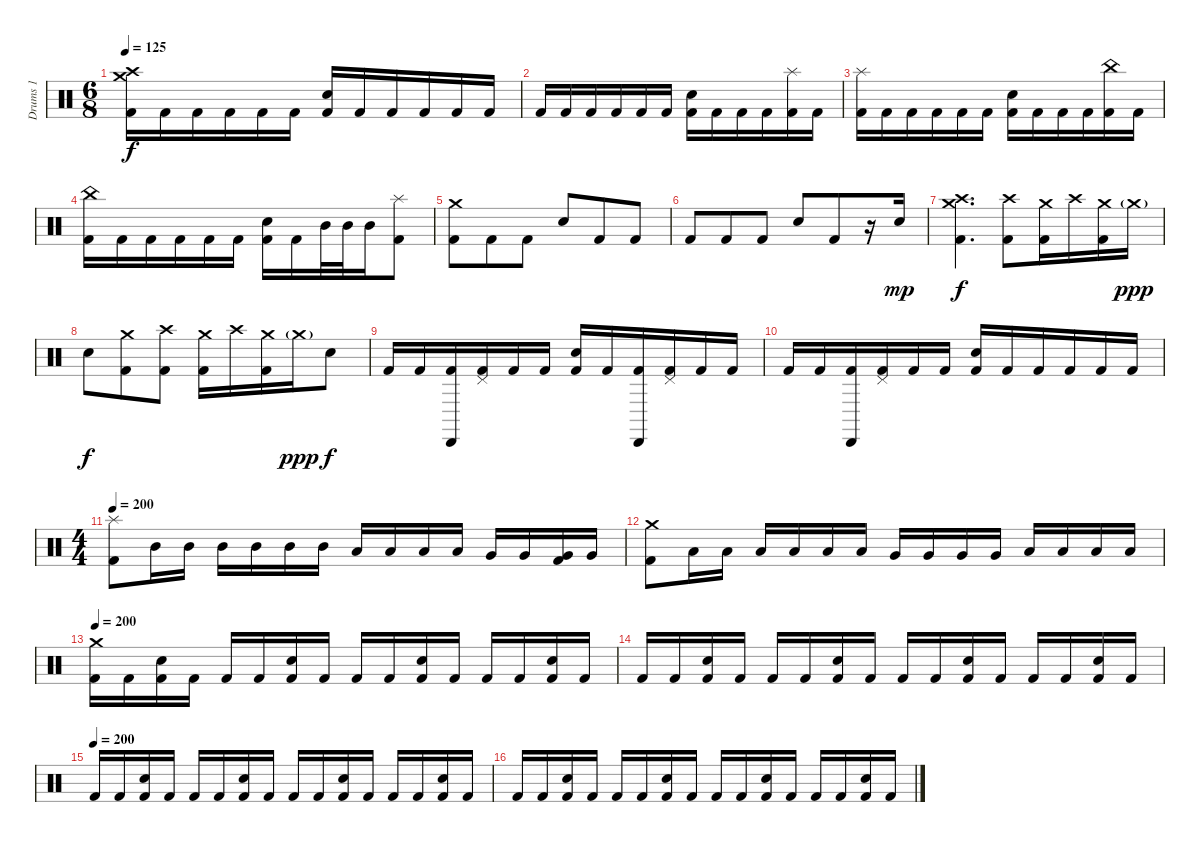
\track ("Drums 1" "Drums 1") {instrument percussion}
\staff {score}
\articulation defaults
\ts (6 8)
\tempo 125
\clef neutral
\ks c
("Crash high (hit)" "Crash medium (hit)" "Kick (hit) 2").16{dy f} "Kick (hit) 2".16 "Kick (hit) 2".16 "Kick (hit) 2".16 "Kick (hit) 2".16 "Kick (hit) 2".16 ("Snare (hit) 2" "Kick (hit) 2").16 "Kick (hit) 2".16 "Kick (hit) 2".16 "Kick (hit) 2".16 "Kick (hit) 2".16 "Kick (hit) 2".16 |
"Kick (hit) 2".16 "Kick (hit) 2".16 "Kick (hit) 2".16 "Kick (hit) 2".16 "Kick (hit) 2".16 "Kick (hit) 2".16 ("Snare (hit) 2" "Kick (hit) 2").16 "Kick (hit) 2".16 "Kick (hit) 2".16 "Kick (hit) 2".16 ("Splash (hit)" "Kick (hit) 2").16 "Kick (hit) 2".16 |
("Splash (hit)" "Kick (hit) 2").16 "Kick (hit) 2".16 "Kick (hit) 2".16 "Kick (hit) 2".16 "Kick (hit) 2".16 "Kick (hit) 2".16 ("Snare (hit) 2" "Kick (hit) 2").16 "Kick (hit) 2".16 "Kick (hit) 2".16 "Kick (hit) 2".16 ("China (hit)" "Kick (hit) 2").16 "Kick (hit) 2".16 |
("China (hit)" "Kick (hit) 2").16 "Kick (hit) 2".16 "Kick (hit) 2".16 "Kick (hit) 2".16 "Kick (hit) 2".16 "Kick (hit) 2".16 ("Snare (hit) 2" "Kick (hit) 2").16 "Kick (hit) 2".16 "Mid Tom (hit)".32 "Mid Tom (hit)".32 "Mid Tom (hit)".16 ("Splash (hit)" "Kick (hit) 2").8 |
("Crash medium (hit)" "Kick (hit) 2").8 "Kick (hit) 2".8 "Kick (hit) 2".8 "Snare (hit) 2".8 "Kick (hit) 2".8 "Kick (hit) 2".8 |
"Kick (hit) 2".8 "Kick (hit) 2".8 "Kick (hit) 2".8 "Snare (hit) 2".8 "Kick (hit) 2".8 r.16 "Snare (hit) 2".16{dy mp} |
("Crash medium (hit)" "Crash high (hit)" "Kick (hit) 2").4{d dy f} ("Crash high (hit)" "Kick (hit) 2").8 ("Crash medium (hit)" "Kick (hit) 2").16 "Crash high (hit)".16 ("Crash medium (hit)" "Kick (hit) 2").16 "Crash medium (hit)"{g}.16{dy ppp} |
"Snare (hit) 2".8{dy f} ("Crash medium (hit)" "Kick (hit) 2").8 ("Crash high (hit)" "Kick (hit) 2").8 ("Crash medium (hit)" "Kick (hit) 2").16 "Crash high (hit)".16 ("Crash medium (hit)" "Kick (hit) 2").16 "Crash medium (hit)"{g}.16{dy ppp} "Snare (hit) 2".8{dy f} |
"Kick (hit) 2".16 "Kick (hit) 2".16 ("Cabasa (hit)" "Kick (hit) 2").16 ("Pedal Hi-Hat (hit)" "Kick (hit) 2").16 "Kick (hit) 2".16 "Kick (hit) 2".16 ("Snare (hit) 2" "Kick (hit) 2").16 "Kick (hit) 2".16 ("Cabasa (hit)" "Kick (hit) 2").16 ("Pedal Hi-Hat (hit)" "Kick (hit) 2").16 "Kick (hit) 2".16 "Kick (hit) 2".16 |
"Kick (hit) 2".16 "Kick (hit) 2".16 ("Cabasa (hit)" "Kick (hit) 2").16 ("Pedal Hi-Hat (hit)" "Kick (hit) 2").16 "Kick (hit) 2".16 "Kick (hit) 2".16 ("Snare (hit) 2" "Kick (hit) 2").16 "Kick (hit) 2".16 "Kick (hit) 2".16 "Kick (hit) 2".16 "Kick (hit) 2".16 "Kick (hit) 2".16 |
\ts (4 4)
\tempo 200
("Splash (hit)" "Kick (hit) 2").8 "Mid Tom (hit)".16 "Mid Tom (hit)".16 "Mid Tom (hit)".16 "Mid Tom (hit)".16 "Mid Tom (hit)".16 "Mid Tom (hit)".16 "Low Tom (hit)".16 "Low Tom (hit)".16 "Low Tom (hit)".16 "Low Tom (hit)".16 "Very Low Tom (hit)".16 "Very Low Tom (hit)".16 ("Very Low Tom (hit)" "Kick (hit) 2").16 "Very Low Tom (hit)".16 |
("Crash medium (hit)" "Kick (hit) 2").8 "Low Tom (hit)".16 "Low Tom (hit)".16 "Low Tom (hit)".16 "Low Tom (hit)".16 "Low Tom (hit)".16 "Low Tom (hit)".16 "Very Low Tom (hit)".16 "Very Low Tom (hit)".16 "Very Low Tom (hit)".16 "Very Low Tom (hit)".16 "Low Floor Tom (hit)".16 "Low Floor Tom (hit)".16 "Low Floor Tom (hit)".16 "Low Floor Tom (hit)".16 |
\tempo 200
("Crash medium (hit)" "Kick (hit) 2").16 "Kick (hit) 2".16 ("Snare (hit) 2" "Kick (hit) 2").16 "Kick (hit) 2".16 "Kick (hit) 2".16 "Kick (hit) 2".16 ("Snare (hit) 2" "Kick (hit) 2").16 "Kick (hit) 2".16 "Kick (hit) 2".16 "Kick (hit) 2".16 ("Snare (hit) 2" "Kick (hit) 2").16 "Kick (hit) 2".16 "Kick (hit) 2".16 "Kick (hit) 2".16 ("Snare (hit) 2" "Kick (hit) 2").16 "Kick (hit) 2".16 |
"Kick (hit) 2".16 "Kick (hit) 2".16 ("Snare (hit) 2" "Kick (hit) 2").16 "Kick (hit) 2".16 "Kick (hit) 2".16 "Kick (hit) 2".16 ("Snare (hit) 2" "Kick (hit) 2").16 "Kick (hit) 2".16 "Kick (hit) 2".16 "Kick (hit) 2".16 ("Snare (hit) 2" "Kick (hit) 2").16 "Kick (hit) 2".16 "Kick (hit) 2".16 "Kick (hit) 2".16 ("Snare (hit) 2" "Kick (hit) 2").16 "Kick (hit) 2".16 |
\tempo (200)
"Kick (hit) 2".16 "Kick (hit) 2".16 ("Snare (hit) 2" "Kick (hit) 2").16 "Kick (hit) 2".16 "Kick (hit) 2".16 "Kick (hit) 2".16 ("Snare (hit) 2" "Kick (hit) 2").16 "Kick (hit) 2".16 "Kick (hit) 2".16 "Kick (hit) 2".16 ("Snare (hit) 2" "Kick (hit) 2").16 "Kick (hit) 2".16 "Kick (hit) 2".16 "Kick (hit) 2".16 ("Snare (hit) 2" "Kick (hit) 2").16 "Kick (hit) 2".16 |
"Kick (hit) 2".16 "Kick (hit) 2".16 ("Snare (hit) 2" "Kick (hit) 2").16 "Kick (hit) 2".16 "Kick (hit) 2".16 "Kick (hit) 2".16 ("Snare (hit) 2" "Kick (hit) 2").16 "Kick (hit) 2".16 "Kick (hit) 2".16 "Kick (hit) 2".16 ("Snare (hit) 2" "Kick (hit) 2").16 "Kick (hit) 2".16 "Kick (hit) 2".16 "Kick (hit) 2".16 ("Snare (hit) 2" "Kick (hit) 2").16 "Kick (hit) 2".16
